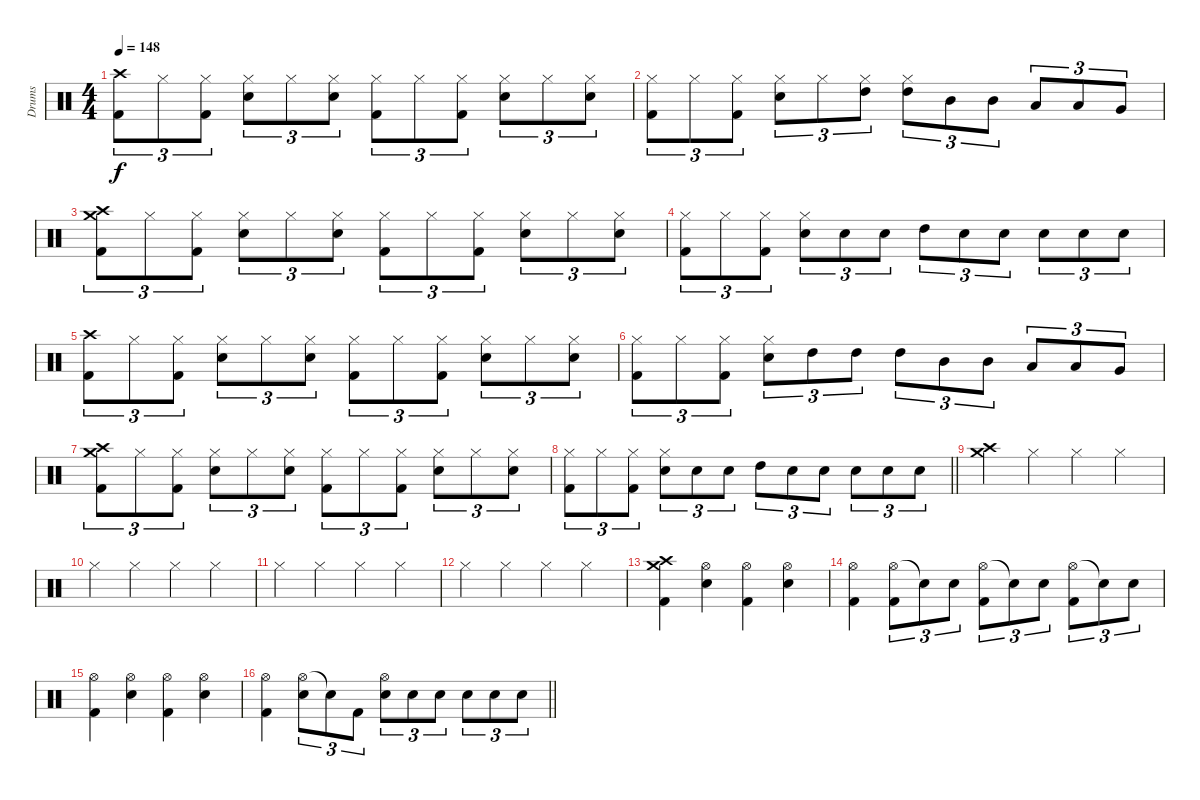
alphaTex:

\track ("Drums" "Drums") {instrument percussion}
\staff {score}
\articulation defaults
\ts (4 4)
\tempo 148
\clef neutral
\ks c
("Crash high (hit)" "Kick (hit) 2").8{tu (3 2) dy f} "Hi-Hat (closed)".8{tu (3 2)} ("Hi-Hat (closed)" "Kick (hit) 2").8{tu (3 2)} ("Hi-Hat (closed)" "Snare (hit) 2").8{tu (3 2)} "Hi-Hat (closed)".8{tu (3 2)} ("Hi-Hat (closed)" "Snare (hit) 2").8{tu (3 2)} ("Hi-Hat (closed)" "Kick (hit) 2").8{tu (3 2)} "Hi-Hat (closed)".8{tu (3 2)} ("Hi-Hat (closed)" "Kick (hit) 2").8{tu (3 2)} ("Hi-Hat (closed)" "Snare (hit) 2").8{tu (3 2)} "Hi-Hat (closed)".8{tu (3 2)} ("Hi-Hat (closed)" "Snare (hit) 2").8{tu (3 2)} |
("Hi-Hat (closed)" "Kick (hit) 2").8{tu (3 2)} "Hi-Hat (closed)".8{tu (3 2)} ("Hi-Hat (closed)" "Kick (hit) 2").8{tu (3 2)} ("Hi-Hat (closed)" "Snare (hit) 2").8{tu (3 2)} "Hi-Hat (closed)".8{tu (3 2)} ("Hi-Hat (closed)" "High Tom (hit)").8{tu (3 2)} ("Hi-Hat (closed)" "High Tom (hit)").8{tu (3 2)} "Mid Tom (hit)".8{tu (3 2)} "Mid Tom (hit)".8{tu (3 2)} "Low Tom (hit)".8{tu (3 2)} "Low Tom (hit)".8{tu (3 2)} "Very Low Tom (hit)".8{tu (3 2)} |
("Crash high (hit)" "Crash medium (hit)" "Kick (hit) 2").8{tu (3 2)} "Hi-Hat (closed)".8{tu (3 2)} ("Hi-Hat (closed)" "Kick (hit) 2").8{tu (3 2)} ("Hi-Hat (closed)" "Snare (hit) 2").8{tu (3 2)} "Hi-Hat (closed)".8{tu (3 2)} ("Hi-Hat (closed)" "Snare (hit) 2").8{tu (3 2)} ("Hi-Hat (closed)" "Kick (hit) 2").8{tu (3 2)} "Hi-Hat (closed)".8{tu (3 2)} ("Hi-Hat (closed)" "Kick (hit) 2").8{tu (3 2)} ("Hi-Hat (closed)" "Snare (hit) 2").8{tu (3 2)} "Hi-Hat (closed)".8{tu (3 2)} ("Hi-Hat (closed)" "Snare (hit) 2").8{tu (3 2)} |
("Hi-Hat (closed)" "Kick (hit) 2").8{tu (3 2)} "Hi-Hat (closed)".8{tu (3 2)} ("Hi-Hat (closed)" "Kick (hit) 2").8{tu (3 2)} ("Hi-Hat (closed)" "Snare (hit) 2").8{tu (3 2)} "Snare (hit) 2".8{tu (3 2)} "Snare (hit) 2".8{tu (3 2)} "High Tom (hit)".8{tu (3 2)} "Snare (hit) 2".8{tu (3 2)} "Snare (hit) 2".8{tu (3 2)} "Snare (hit) 2".8{tu (3 2)} "Snare (hit) 2".8{tu (3 2)} "Snare (hit) 2".8{tu (3 2)} |
("Crash high (hit)" "Kick (hit) 2").8{tu (3 2)} "Hi-Hat (closed)".8{tu (3 2)} ("Hi-Hat (closed)" "Kick (hit) 2").8{tu (3 2)} ("Hi-Hat (closed)" "Snare (hit) 2").8{tu (3 2)} "Hi-Hat (closed)".8{tu (3 2)} ("Hi-Hat (closed)" "Snare (hit) 2").8{tu (3 2)} ("Hi-Hat (closed)" "Kick (hit) 2").8{tu (3 2)} "Hi-Hat (closed)".8{tu (3 2)} ("Hi-Hat (closed)" "Kick (hit) 2").8{tu (3 2)} ("Hi-Hat (closed)" "Snare (hit) 2").8{tu (3 2)} "Hi-Hat (closed)".8{tu (3 2)} ("Hi-Hat (closed)" "Snare (hit) 2").8{tu (3 2)} |
("Hi-Hat (closed)" "Kick (hit) 2").8{tu (3 2)} "Hi-Hat (closed)".8{tu (3 2)} ("Hi-Hat (closed)" "Kick (hit) 2").8{tu (3 2)} ("Hi-Hat (closed)" "Snare (hit) 2").8{tu (3 2)} "High Tom (hit)".8{tu (3 2)} "High Tom (hit)".8{tu (3 2)} "High Tom (hit)".8{tu (3 2)} "Mid Tom (hit)".8{tu (3 2)} "Mid Tom (hit)".8{tu (3 2)} "Low Tom (hit)".8{tu (3 2)} "Low Tom (hit)".8{tu (3 2)} "Very Low Tom (hit)".8{tu (3 2)} |
("Crash high (hit)" "Crash medium (hit)" "Kick (hit) 2").8{tu (3 2)} "Hi-Hat (closed)".8{tu (3 2)} ("Hi-Hat (closed)" "Kick (hit) 2").8{tu (3 2)} ("Hi-Hat (closed)" "Snare (hit) 2").8{tu (3 2)} "Hi-Hat (closed)".8{tu (3 2)} ("Hi-Hat (closed)" "Snare (hit) 2").8{tu (3 2)} ("Hi-Hat (closed)" "Kick (hit) 2").8{tu (3 2)} "Hi-Hat (closed)".8{tu (3 2)} ("Hi-Hat (closed)" "Kick (hit) 2").8{tu (3 2)} ("Hi-Hat (closed)" "Snare (hit) 2").8{tu (3 2)} "Hi-Hat (closed)".8{tu (3 2)} ("Hi-Hat (closed)" "Snare (hit) 2").8{tu (3 2)} |
\barLineRight lightlight
("Hi-Hat (closed)" "Kick (hit) 2").8{tu (3 2)} "Hi-Hat (closed)".8{tu (3 2)} ("Hi-Hat (closed)" "Kick (hit) 2").8{tu (3 2)} ("Hi-Hat (closed)" "Snare (hit) 2").8{tu (3 2)} "Snare (hit) 2".8{tu (3 2)} "Snare (hit) 2".8{tu (3 2)} "High Tom (hit)".8{tu (3 2)} "Snare (hit) 2".8{tu (3 2)} "Snare (hit) 2".8{tu (3 2)} "Snare (hit) 2".8{tu (3 2)} "Snare (hit) 2".8{tu (3 2)} "Snare (hit) 2".8{tu (3 2)} |
("Crash medium (hit)" "Crash high (hit)").4 "Hi-Hat (closed)".4 "Hi-Hat (closed)".4 "Hi-Hat (closed)".4 |
"Hi-Hat (closed)".4 "Hi-Hat (closed)".4 "Hi-Hat (closed)".4 "Hi-Hat (closed)".4 |
"Hi-Hat (closed)".4 "Hi-Hat (closed)".4 "Hi-Hat (closed)".4 "Hi-Hat (closed)".4 |
"Hi-Hat (closed)".4 "Hi-Hat (closed)".4 "Hi-Hat (closed)".4 "Hi-Hat (closed)".4 |
("Crash high (hit)" "Crash medium (hit)" "Kick (hit) 2").4 ("Hi-Hat (open)" "Snare (hit) 2").4 ("Hi-Hat (open)" "Kick (hit) 2").4 ("Hi-Hat (open)" "Snare (hit) 2").4 |
("Hi-Hat (open)" "Kick (hit) 2").4 ("Hi-Hat (open)" "Kick (hit) 2").8{tu (3 2)} "Snare (hit)"{t}.8{tu (3 2)} "Snare (hit) 2".8{tu (3 2)} ("Hi-Hat (open)" "Kick (hit) 2").8{tu (3 2)} "Snare (hit)"{t}.8{tu (3 2)} "Snare (hit) 2".8{tu (3 2)} ("Hi-Hat (open)" "Kick (hit) 2").8{tu (3 2)} "Snare (hit) 2"{t}.8{tu (3 2)} "Snare (hit) 2".8{tu (3 2)} |
("Hi-Hat (open)" "Kick (hit) 2").4 ("Hi-Hat (open)" "Snare (hit) 2").4 ("Hi-Hat (open)" "Kick (hit) 2").4 ("Hi-Hat (open)" "Snare (hit) 2").4 |
\barLineRight lightlight
("Hi-Hat (open)" "Kick (hit) 2").4 ("Hi-Hat (open)" "Snare (hit) 2").8{tu (3 2)} "Snare (hit)"{t}.8{tu (3 2)} "Kick (hit) 2".8{tu (3 2)} ("Hi-Hat (open)" "Snare (hit) 2").8{tu (3 2)} "Snare (hit) 2".8{tu (3 2)} "Snare (hit) 2".8{tu (3 2)} "Snare (hit) 2".8{tu (3 2)} "Snare (hit) 2".8{tu (3 2)} "Snare (hit) 2".8{tu (3 2)}
